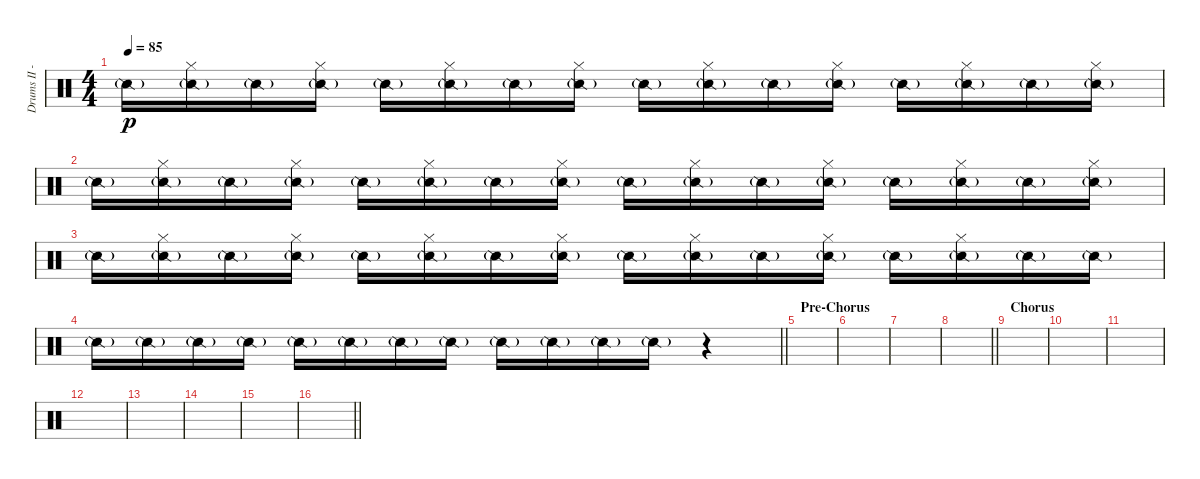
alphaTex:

\track ("Drums II - Adam" "Drums II -") {instrument percussion}
\staff {score}
\articulation defaults
\ts (4 4)
\tempo 85
\clef neutral
\ks c "Snare (side stick) 2"{g}.16{dy p}
("Snare (side stick) 2"{g} "Hi-Hat (closed)").16 "Snare (side stick) 2"{g}.16 ("Snare (side stick) 2"{g} "Hi-Hat (closed)").16 "Snare (side stick) 2"{g}.16 ("Snare (side stick) 2"{g} "Hi-Hat (closed)").16 "Snare (side stick) 2"{g}.16 ("Snare (side stick) 2"{g} "Hi-Hat (closed)").16 "Snare (side stick) 2"{g}.16 ("Snare (side stick) 2"{g} "Hi-Hat (closed)").16 "Snare (side stick) 2"{g}.16 ("Snare (side stick) 2"{g} "Hi-Hat (closed)").16 "Snare (side stick) 2"{g}.16 ("Snare (side stick) 2"{g} "Hi-Hat (closed)").16 "Snare (side stick) 2"{g}.16 ("Snare (side stick) 2"{g} "Hi-Hat (closed)").16 |
"Snare (side stick) 2"{g}.16 ("Snare (side stick) 2"{g} "Hi-Hat (closed)").16 "Snare (side stick) 2"{g}.16 ("Snare (side stick) 2"{g} "Hi-Hat (closed)").16 "Snare (side stick) 2"{g}.16 ("Snare (side stick) 2"{g} "Hi-Hat (closed)").16 "Snare (side stick) 2"{g}.16 ("Snare (side stick) 2"{g} "Hi-Hat (closed)").16 "Snare (side stick) 2"{g}.16 ("Snare (side stick) 2"{g} "Hi-Hat (closed)").16 "Snare (side stick) 2"{g}.16 ("Snare (side stick) 2"{g} "Hi-Hat (closed)").16 "Snare (side stick) 2"{g}.16 ("Snare (side stick) 2"{g} "Hi-Hat (closed)").16 "Snare (side stick) 2"{g}.16 ("Snare (side stick) 2"{g} "Hi-Hat (closed)").16 |
"Snare (side stick) 2"{g}.16 ("Snare (side stick) 2"{g} "Hi-Hat (closed)").16 "Snare (side stick) 2"{g}.16 ("Snare (side stick) 2"{g} "Hi-Hat (closed)").16 "Snare (side stick) 2"{g}.16 ("Snare (side stick) 2"{g} "Hi-Hat (closed)").16 "Snare (side stick) 2"{g}.16 ("Snare (side stick) 2"{g} "Hi-Hat (closed)").16 "Snare (side stick) 2"{g}.16 ("Snare (side stick) 2"{g} "Hi-Hat (closed)").16 "Snare (side stick) 2"{g}.16 ("Snare (side stick) 2"{g} "Hi-Hat (closed)").16 "Snare (side stick) 2"{g}.16 ("Snare (side stick) 2"{g} "Hi-Hat (closed)").16 "Snare (side stick) 2"{g}.16 "Snare (side stick) 2"{g}.16 |
\barLineRight lightlight "Snare (side stick) 2"{g}.16 "Snare (side stick) 2"{g}.16 "Snare (side stick) 2"{g}.16 "Snare (side stick) 2"{g}.16 "Snare (side stick) 2"{g}.16 "Snare (side stick) 2"{g}.16 "Snare (side stick) 2"{g}.16 "Snare (side stick) 2"{g}.16 "Snare (side stick) 2"{g}.16 "Snare (side stick) 2"{g}.16 "Snare (side stick) 2"{g}.16 "Snare (side stick) 2"{g}.16
r.4 |
\section ("" "Pre-Chorus")
|
|
|
\barLineRight lightlight
|
\section ("" "Chorus")
|
|
|
|
|
|
|
\barLineRight lightlight
